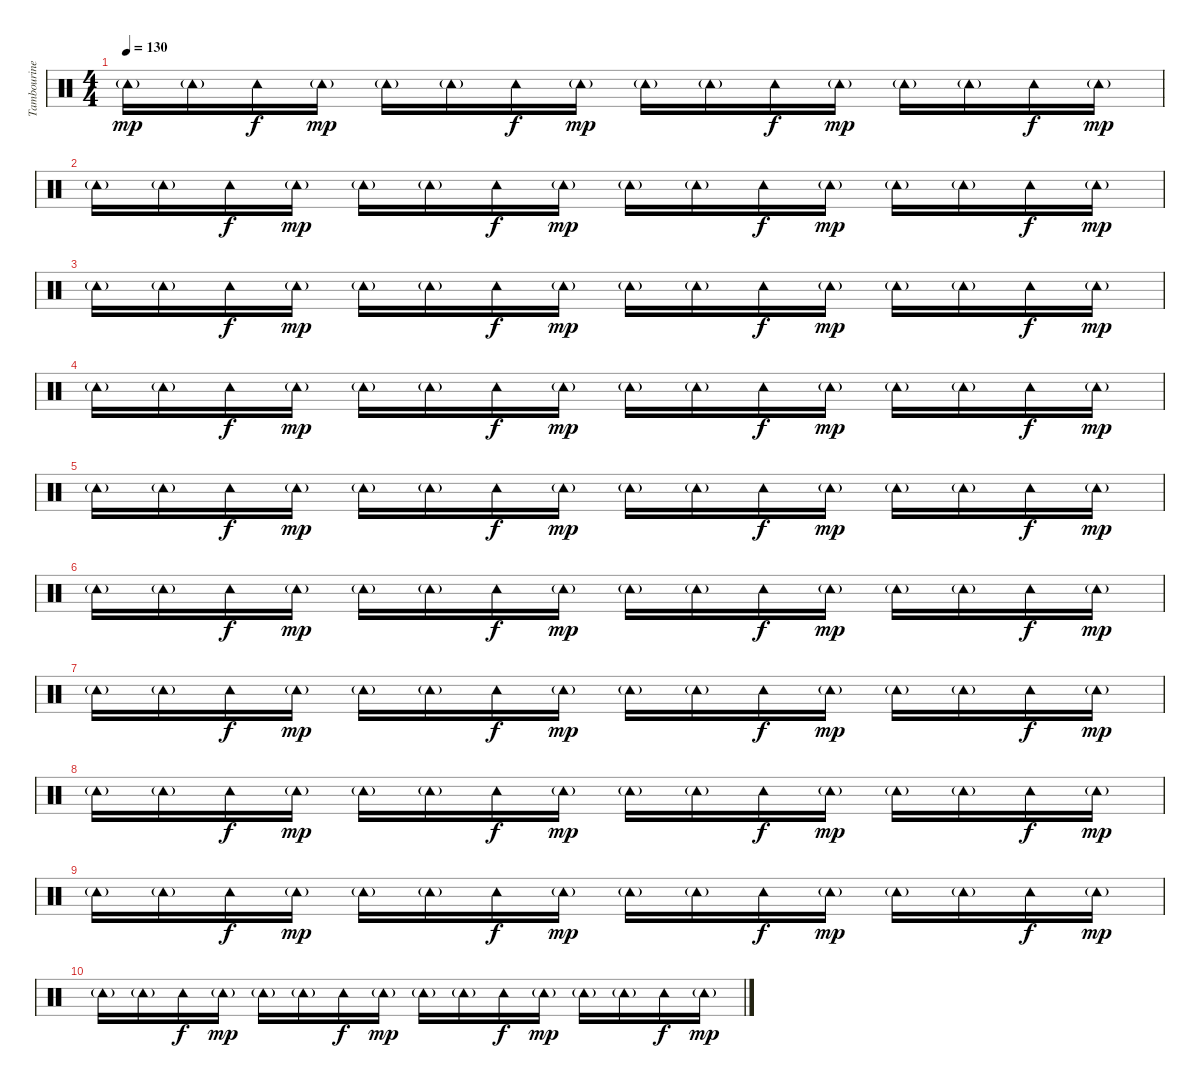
\track ("Tambourine" "Tambourine") {instrument percussion}
\staff {score}
\articulation defaults
\ts (4 4)
\tempo 130
\clef neutral
\ks c "Tambourine (hit)"{g}.16{dy mp} "Tambourine (hit)"{g}.16 "Tambourine (hit)".16{dy f} "Tambourine (hit)"{g}.16{dy mp} "Tambourine (hit)"{g}.16 "Tambourine (hit)"{g}.16 "Tambourine (hit)".16{dy f} "Tambourine (hit)"{g}.16{dy mp} "Tambourine (hit)"{g}.16 "Tambourine (hit)"{g}.16 "Tambourine (hit)".16{dy f} "Tambourine (hit)"{g}.16{dy mp} "Tambourine (hit)"{g}.16 "Tambourine (hit)"{g}.16 "Tambourine (hit)".16{dy f} "Tambourine (hit)"{g}.16{dy mp}
|
"Tambourine (hit)"{g}.16 "Tambourine (hit)"{g}.16 "Tambourine (hit)".16{dy f} "Tambourine (hit)"{g}.16{dy mp} "Tambourine (hit)"{g}.16 "Tambourine (hit)"{g}.16 "Tambourine (hit)".16{dy f} "Tambourine (hit)"{g}.16{dy mp} "Tambourine (hit)"{g}.16 "Tambourine (hit)"{g}.16 "Tambourine (hit)".16{dy f} "Tambourine (hit)"{g}.16{dy mp} "Tambourine (hit)"{g}.16 "Tambourine (hit)"{g}.16 "Tambourine (hit)".16{dy f} "Tambourine (hit)"{g}.16{dy mp} |
"Tambourine (hit)"{g}.16 "Tambourine (hit)"{g}.16 "Tambourine (hit)".16{dy f} "Tambourine (hit)"{g}.16{dy mp} "Tambourine (hit)"{g}.16 "Tambourine (hit)"{g}.16 "Tambourine (hit)".16{dy f} "Tambourine (hit)"{g}.16{dy mp} "Tambourine (hit)"{g}.16 "Tambourine (hit)"{g}.16 "Tambourine (hit)".16{dy f} "Tambourine (hit)"{g}.16{dy mp} "Tambourine (hit)"{g}.16 "Tambourine (hit)"{g}.16 "Tambourine (hit)".16{dy f} "Tambourine (hit)"{g}.16{dy mp} |
"Tambourine (hit)"{g}.16 "Tambourine (hit)"{g}.16 "Tambourine (hit)".16{dy f} "Tambourine (hit)"{g}.16{dy mp} "Tambourine (hit)"{g}.16 "Tambourine (hit)"{g}.16 "Tambourine (hit)".16{dy f} "Tambourine (hit)"{g}.16{dy mp} "Tambourine (hit)"{g}.16 "Tambourine (hit)"{g}.16 "Tambourine (hit)".16{dy f} "Tambourine (hit)"{g}.16{dy mp} "Tambourine (hit)"{g}.16 "Tambourine (hit)"{g}.16 "Tambourine (hit)".16{dy f} "Tambourine (hit)"{g}.16{dy mp} |
"Tambourine (hit)"{g}.16 "Tambourine (hit)"{g}.16 "Tambourine (hit)".16{dy f} "Tambourine (hit)"{g}.16{dy mp} "Tambourine (hit)"{g}.16 "Tambourine (hit)"{g}.16 "Tambourine (hit)".16{dy f} "Tambourine (hit)"{g}.16{dy mp} "Tambourine (hit)"{g}.16 "Tambourine (hit)"{g}.16 "Tambourine (hit)".16{dy f} "Tambourine (hit)"{g}.16{dy mp} "Tambourine (hit)"{g}.16 "Tambourine (hit)"{g}.16 "Tambourine (hit)".16{dy f} "Tambourine (hit)"{g}.16{dy mp} |
"Tambourine (hit)"{g}.16 "Tambourine (hit)"{g}.16 "Tambourine (hit)".16{dy f} "Tambourine (hit)"{g}.16{dy mp} "Tambourine (hit)"{g}.16 "Tambourine (hit)"{g}.16 "Tambourine (hit)".16{dy f} "Tambourine (hit)"{g}.16{dy mp} "Tambourine (hit)"{g}.16 "Tambourine (hit)"{g}.16 "Tambourine (hit)".16{dy f} "Tambourine (hit)"{g}.16{dy mp} "Tambourine (hit)"{g}.16 "Tambourine (hit)"{g}.16 "Tambourine (hit)".16{dy f} "Tambourine (hit)"{g}.16{dy mp} |
"Tambourine (hit)"{g}.16 "Tambourine (hit)"{g}.16 "Tambourine (hit)".16{dy f} "Tambourine (hit)"{g}.16{dy mp} "Tambourine (hit)"{g}.16 "Tambourine (hit)"{g}.16 "Tambourine (hit)".16{dy f} "Tambourine (hit)"{g}.16{dy mp} "Tambourine (hit)"{g}.16 "Tambourine (hit)"{g}.16 "Tambourine (hit)".16{dy f} "Tambourine (hit)"{g}.16{dy mp} "Tambourine (hit)"{g}.16 "Tambourine (hit)"{g}.16 "Tambourine (hit)".16{dy f} "Tambourine (hit)"{g}.16{dy mp} |
"Tambourine (hit)"{g}.16 "Tambourine (hit)"{g}.16 "Tambourine (hit)".16{dy f} "Tambourine (hit)"{g}.16{dy mp} "Tambourine (hit)"{g}.16 "Tambourine (hit)"{g}.16 "Tambourine (hit)".16{dy f} "Tambourine (hit)"{g}.16{dy mp} "Tambourine (hit)"{g}.16 "Tambourine (hit)"{g}.16 "Tambourine (hit)".16{dy f} "Tambourine (hit)"{g}.16{dy mp} "Tambourine (hit)"{g}.16 "Tambourine (hit)"{g}.16 "Tambourine (hit)".16{dy f} "Tambourine (hit)"{g}.16{dy mp} |
"Tambourine (hit)"{g}.16 "Tambourine (hit)"{g}.16 "Tambourine (hit)".16{dy f} "Tambourine (hit)"{g}.16{dy mp} "Tambourine (hit)"{g}.16 "Tambourine (hit)"{g}.16 "Tambourine (hit)".16{dy f} "Tambourine (hit)"{g}.16{dy mp} "Tambourine (hit)"{g}.16 "Tambourine (hit)"{g}.16 "Tambourine (hit)".16{dy f} "Tambourine (hit)"{g}.16{dy mp} "Tambourine (hit)"{g}.16 "Tambourine (hit)"{g}.16 "Tambourine (hit)".16{dy f} "Tambourine (hit)"{g}.16{dy mp} |
"Tambourine (hit)"{g}.16 "Tambourine (hit)"{g}.16 "Tambourine (hit)".16{dy f} "Tambourine (hit)"{g}.16{dy mp} "Tambourine (hit)"{g}.16 "Tambourine (hit)"{g}.16 "Tambourine (hit)".16{dy f} "Tambourine (hit)"{g}.16{dy mp} "Tambourine (hit)"{g}.16 "Tambourine (hit)"{g}.16 "Tambourine (hit)".16{dy f} "Tambourine (hit)"{g}.16{dy mp} "Tambourine (hit)"{g}.16 "Tambourine (hit)"{g}.16 "Tambourine (hit)".16{dy f} "Tambourine (hit)"{g}.16{dy mp}
